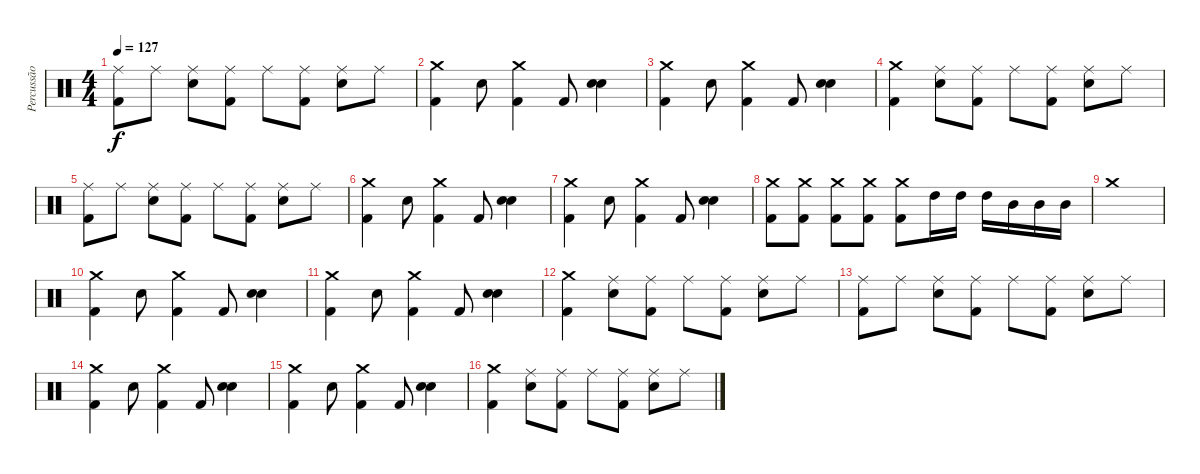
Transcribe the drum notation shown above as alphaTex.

\track ("Percussão" "Percussão") {instrument percussion}
\staff {score}
\articulation defaults
\ts (4 4)
\tempo 127
\clef neutral
\ks c
("Ride (middle)" "Kick (hit) 2").8{dy f} "Ride (middle)".8 ("Ride (middle)" "Electric Snare (hit)").8 ("Ride (middle)" "Kick (hit) 2").8 "Ride (middle)".8 ("Ride (middle)" "Kick (hit) 2").8 ("Ride (middle)" "Electric Snare (hit)").8 "Ride (middle)".8 |
("Crash medium (hit)" "Kick (hit) 2").4 "Electric Snare (hit)".8 ("Crash medium (hit)" "Kick (hit) 2").4 "Kick (hit) 2".8 ("Electric Snare (hit)" "Electric Snare (hit)").4 |
("Crash medium (hit)" "Kick (hit) 2").4 "Electric Snare (hit)".8 ("Crash medium (hit)" "Kick (hit) 2").4 "Kick (hit) 2".8 ("Electric Snare (hit)" "Electric Snare (hit)").4 |
("Crash medium (hit)" "Kick (hit) 2").4 ("Ride (middle)" "Electric Snare (hit)").8 ("Ride (middle)" "Kick (hit) 2").8 "Ride (middle)".8 ("Ride (middle)" "Kick (hit) 2").8 ("Ride (middle)" "Electric Snare (hit)").8 "Ride (middle)".8 |
("Ride (middle)" "Kick (hit) 2").8 "Ride (middle)".8 ("Ride (middle)" "Electric Snare (hit)").8 ("Ride (middle)" "Kick (hit) 2").8 "Ride (middle)".8 ("Ride (middle)" "Kick (hit) 2").8 ("Ride (middle)" "Electric Snare (hit)").8 "Ride (middle)".8 |
("Crash medium (hit)" "Kick (hit) 2").4 "Electric Snare (hit)".8 ("Crash medium (hit)" "Kick (hit) 2").4 "Kick (hit) 2".8 ("Electric Snare (hit)" "Electric Snare (hit)").4 |
("Crash medium (hit)" "Kick (hit) 2").4 "Electric Snare (hit)".8 ("Crash medium (hit)" "Kick (hit) 2").4 "Kick (hit) 2".8 ("Electric Snare (hit)" "Electric Snare (hit)").4 |
("Crash medium (hit)" "Kick (hit) 2").8 ("Crash medium (hit)" "Kick (hit) 2").8 ("Crash medium (hit)" "Kick (hit) 2").8 ("Crash medium (hit)" "Kick (hit) 2").8 ("Crash medium (hit)" "Kick (hit) 2").8 "High Tom (hit)".16 "High Tom (hit)".16 "High Tom (hit)".16 "Mid Tom (hit)".16 "Mid Tom (hit)".16 "Mid Tom (hit)".16 |
"Crash medium (hit)".1 |
("Crash medium (hit)" "Kick (hit) 2").4 "Electric Snare (hit)".8 ("Crash medium (hit)" "Kick (hit) 2").4 "Kick (hit) 2".8 ("Electric Snare (hit)" "Electric Snare (hit)").4 |
("Crash medium (hit)" "Kick (hit) 2").4 "Electric Snare (hit)".8 ("Crash medium (hit)" "Kick (hit) 2").4 "Kick (hit) 2".8 ("Electric Snare (hit)" "Electric Snare (hit)").4 |
("Crash medium (hit)" "Kick (hit) 2").4 ("Ride (middle)" "Electric Snare (hit)").8 ("Ride (middle)" "Kick (hit) 2").8 "Ride (middle)".8 ("Ride (middle)" "Kick (hit) 2").8 ("Ride (middle)" "Electric Snare (hit)").8 "Ride (middle)".8 |
("Ride (middle)" "Kick (hit) 2").8 "Ride (middle)".8 ("Ride (middle)" "Electric Snare (hit)").8 ("Ride (middle)" "Kick (hit) 2").8 "Ride (middle)".8 ("Ride (middle)" "Kick (hit) 2").8 ("Ride (middle)" "Electric Snare (hit)").8 "Ride (middle)".8 |
("Crash medium (hit)" "Kick (hit) 2").4 "Electric Snare (hit)".8 ("Crash medium (hit)" "Kick (hit) 2").4 "Kick (hit) 2".8 ("Electric Snare (hit)" "Electric Snare (hit)").4 |
("Crash medium (hit)" "Kick (hit) 2").4 "Electric Snare (hit)".8 ("Crash medium (hit)" "Kick (hit) 2").4 "Kick (hit) 2".8 ("Electric Snare (hit)" "Electric Snare (hit)").4 |
("Crash medium (hit)" "Kick (hit) 2").4 ("Ride (middle)" "Electric Snare (hit)").8 ("Ride (middle)" "Kick (hit) 2").8 "Ride (middle)".8 ("Ride (middle)" "Kick (hit) 2").8 ("Ride (middle)" "Electric Snare (hit)").8 "Ride (middle)".8
